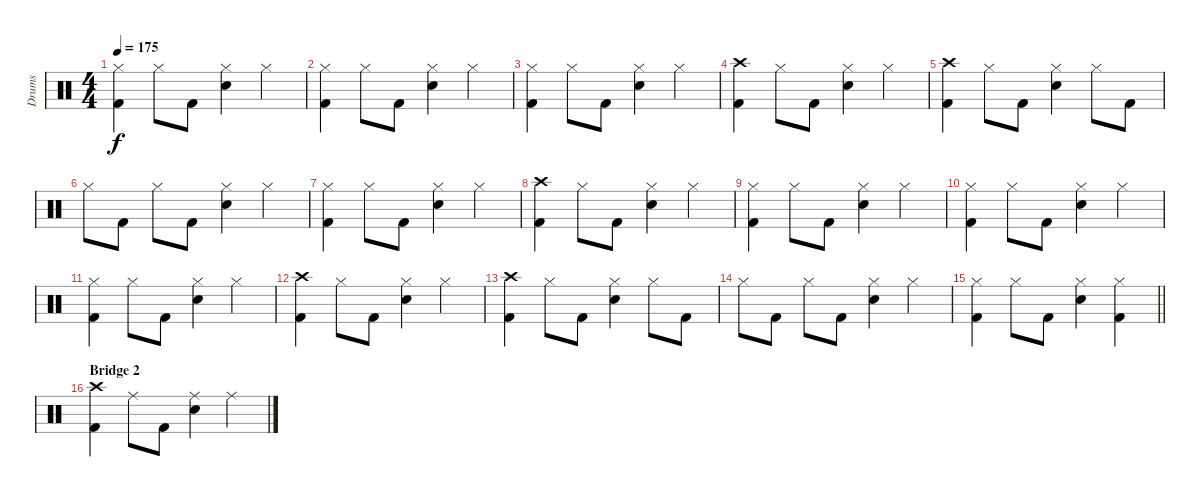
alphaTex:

\track ("Drums" "Drums") {instrument percussion}
\staff {score}
\articulation defaults
\ts (4 4)
\tempo 175
\clef neutral
\ks c
("Hi-Hat (closed)" "Kick (hit) 2").4{dy f} "Hi-Hat (closed)".8 "Kick (hit) 2".8 ("Hi-Hat (closed)" "Snare (hit) 2").4 "Hi-Hat (closed)".4 |
("Hi-Hat (closed)" "Kick (hit) 2").4 "Hi-Hat (closed)".8 "Kick (hit) 2".8 ("Hi-Hat (closed)" "Snare (hit) 2").4 "Hi-Hat (closed)".4 |
("Hi-Hat (closed)" "Kick (hit) 2").4 "Hi-Hat (closed)".8 "Kick (hit) 2".8 ("Hi-Hat (closed)" "Snare (hit) 2").4 "Hi-Hat (closed)".4 |
("Crash high (hit)" "Kick (hit) 2").4 "Hi-Hat (closed)".8 "Kick (hit) 2".8 ("Hi-Hat (closed)" "Snare (hit) 2").4 "Hi-Hat (closed)".4 |
("Crash high (hit)" "Kick (hit) 2").4 "Hi-Hat (closed)".8 "Kick (hit) 2".8 ("Hi-Hat (closed)" "Snare (hit) 2").4 "Hi-Hat (closed)".8 "Kick (hit) 2".8 |
"Hi-Hat (closed)".8 "Kick (hit) 2".8 "Hi-Hat (closed)".8 "Kick (hit) 2".8 ("Hi-Hat (closed)" "Snare (hit) 2").4 "Hi-Hat (closed)".4 |
("Hi-Hat (closed)" "Kick (hit) 2").4 "Hi-Hat (closed)".8 "Kick (hit) 2".8 ("Hi-Hat (closed)" "Snare (hit) 2").4 "Hi-Hat (closed)".4 |
("Crash high (hit)" "Kick (hit) 2").4 "Hi-Hat (closed)".8 "Kick (hit) 2".8 ("Hi-Hat (closed)" "Snare (hit) 2").4 "Hi-Hat (closed)".4 |
("Hi-Hat (closed)" "Kick (hit) 2").4 "Hi-Hat (closed)".8 "Kick (hit) 2".8 ("Hi-Hat (closed)" "Snare (hit) 2").4 "Hi-Hat (closed)".4 |
("Hi-Hat (closed)" "Kick (hit) 2").4 "Hi-Hat (closed)".8 "Kick (hit) 2".8 ("Hi-Hat (closed)" "Snare (hit) 2").4 "Hi-Hat (closed)".4 |
("Hi-Hat (closed)" "Kick (hit) 2").4 "Hi-Hat (closed)".8 "Kick (hit) 2".8 ("Hi-Hat (closed)" "Snare (hit) 2").4 "Hi-Hat (closed)".4 |
("Crash high (hit)" "Kick (hit) 2").4 "Hi-Hat (closed)".8 "Kick (hit) 2".8 ("Hi-Hat (closed)" "Snare (hit) 2").4 "Hi-Hat (closed)".4 |
("Crash high (hit)" "Kick (hit) 2").4 "Hi-Hat (closed)".8 "Kick (hit) 2".8 ("Hi-Hat (closed)" "Snare (hit) 2").4 "Hi-Hat (closed)".8 "Kick (hit) 2".8 |
"Hi-Hat (closed)".8 "Kick (hit) 2".8 "Hi-Hat (closed)".8 "Kick (hit) 2".8 ("Hi-Hat (closed)" "Snare (hit) 2").4 "Hi-Hat (closed)".4 |
\barLineRight lightlight
("Hi-Hat (closed)" "Kick (hit) 2").4 "Hi-Hat (closed)".8 "Kick (hit) 2".8 ("Hi-Hat (closed)" "Snare (hit) 2").4 ("Hi-Hat (closed)" "Kick (hit) 2").4 |
\section ("" "Bridge 2")
("Crash high (hit)" "Kick (hit) 2").4 "Ride (middle)".8 "Kick (hit) 2".8 ("Ride (middle)" "Snare (hit) 2").4 "Ride (middle)".4
